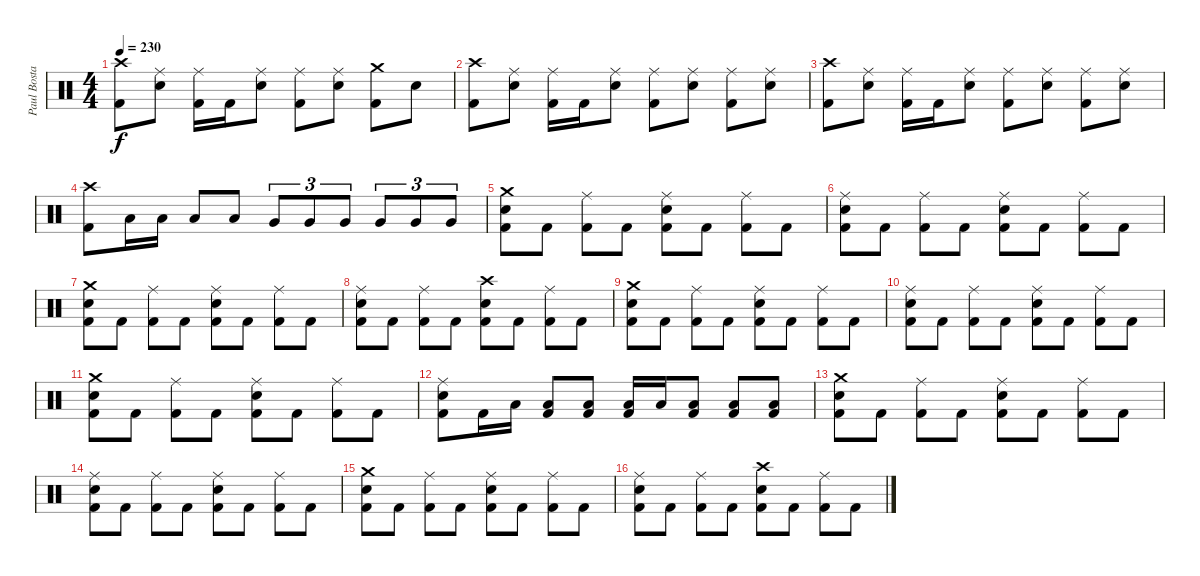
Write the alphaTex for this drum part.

\track ("Paul Bostaph" "Paul Bosta") {instrument percussion}
\staff {score}
\articulation defaults
\ts (4 4)
\tempo 230
\clef neutral
\ks c
("Crash high (hit)" "Kick (hit) 2").8{dy f} ("Electric Snare (hit)" "Ride (middle)").8 ("Kick (hit) 2" "Ride (middle)").16 "Kick (hit) 2".16 ("Electric Snare (hit)" "Ride (middle)").8 ("Kick (hit) 2" "Ride (middle)").8 ("Electric Snare (hit)" "Ride (middle)").8 ("Kick (hit) 2" "Crash medium (hit)").8 "Electric Snare (hit)".8 |
("Crash high (hit)" "Kick (hit) 2").8 ("Electric Snare (hit)" "Ride (middle)").8 ("Kick (hit) 2" "Ride (middle)").16 "Kick (hit) 2".16 ("Electric Snare (hit)" "Ride (middle)").8 ("Kick (hit) 2" "Ride (middle)").8 ("Electric Snare (hit)" "Ride (middle)").8 ("Kick (hit) 2" "Ride (middle)").8 ("Electric Snare (hit)" "Ride (middle)").8 |
("Crash high (hit)" "Kick (hit) 2").8 ("Electric Snare (hit)" "Ride (middle)").8 ("Kick (hit) 2" "Ride (middle)").16 "Kick (hit) 2".16 ("Electric Snare (hit)" "Ride (middle)").8 ("Kick (hit) 2" "Ride (middle)").8 ("Electric Snare (hit)" "Ride (middle)").8 ("Kick (hit) 2" "Ride (middle)").8 ("Electric Snare (hit)" "Ride (middle)").8 |
("Crash high (hit)" "Kick (hit) 2").8 "Low Tom (hit)".16 "Low Tom (hit)".16 "Low Tom (hit)".8 "Low Tom (hit)".8 "Very Low Tom (hit)".8{tu (3 2)} "Very Low Tom (hit)".8{tu (3 2)} "Very Low Tom (hit)".8{tu (3 2)} "Very Low Tom (hit)".8{tu (3 2)} "Very Low Tom (hit)".8{tu (3 2)} "Very Low Tom (hit)".8{tu (3 2)} |
("Electric Snare (hit)" "Crash medium (hit)" "Kick (hit) 2").8 "Kick (hit) 2".8 ("Ride (middle)" "Kick (hit) 2").8 "Kick (hit) 2".8 ("Ride (middle)" "Electric Snare (hit)" "Kick (hit) 2").8 "Kick (hit) 2".8 ("Ride (middle)" "Kick (hit) 2").8 "Kick (hit) 2".8 |
("Electric Snare (hit)" "Ride (middle)" "Kick (hit) 2").8 "Kick (hit) 2".8 ("Ride (middle)" "Kick (hit) 2").8 "Kick (hit) 2".8 ("Ride (middle)" "Electric Snare (hit)" "Kick (hit) 2").8 "Kick (hit) 2".8 ("Ride (middle)" "Kick (hit) 2").8 "Kick (hit) 2".8 |
("Electric Snare (hit)" "Crash medium (hit)" "Kick (hit) 2").8 "Kick (hit) 2".8 ("Ride (middle)" "Kick (hit) 2").8 "Kick (hit) 2".8 ("Ride (middle)" "Electric Snare (hit)" "Kick (hit) 2").8 "Kick (hit) 2".8 ("Ride (middle)" "Kick (hit) 2").8 "Kick (hit) 2".8 |
("Electric Snare (hit)" "Ride (middle)" "Kick (hit) 2").8 "Kick (hit) 2".8 ("Ride (middle)" "Kick (hit) 2").8 "Kick (hit) 2".8 ("Crash high (hit)" "Electric Snare (hit)" "Kick (hit) 2").8 "Kick (hit) 2".8 ("Ride (middle)" "Kick (hit) 2").8 "Kick (hit) 2".8 |
("Electric Snare (hit)" "Crash medium (hit)" "Kick (hit) 2").8 "Kick (hit) 2".8 ("Ride (middle)" "Kick (hit) 2").8 "Kick (hit) 2".8 ("Ride (middle)" "Electric Snare (hit)" "Kick (hit) 2").8 "Kick (hit) 2".8 ("Ride (middle)" "Kick (hit) 2").8 "Kick (hit) 2".8 |
("Electric Snare (hit)" "Ride (middle)" "Kick (hit) 2").8 "Kick (hit) 2".8 ("Ride (middle)" "Kick (hit) 2").8 "Kick (hit) 2".8 ("Ride (middle)" "Electric Snare (hit)" "Kick (hit) 2").8 "Kick (hit) 2".8 ("Ride (middle)" "Kick (hit) 2").8 "Kick (hit) 2".8 |
("Electric Snare (hit)" "Crash medium (hit)" "Kick (hit) 2").8 "Kick (hit) 2".8 ("Ride (middle)" "Kick (hit) 2").8 "Kick (hit) 2".8 ("Ride (middle)" "Electric Snare (hit)" "Kick (hit) 2").8 "Kick (hit) 2".8 ("Ride (middle)" "Kick (hit) 2").8 "Kick (hit) 2".8 |
("Electric Snare (hit)" "Ride (middle)" "Kick (hit) 2").8 "Kick (hit) 2".16 "Low Tom (hit)".16 ("Low Tom (hit)" "Kick (hit) 2").8 ("Low Tom (hit)" "Kick (hit) 2").8 ("Low Tom (hit)" "Kick (hit) 2").16 "Low Tom (hit)".16 ("Low Tom (hit)" "Kick (hit) 2").8 ("Low Tom (hit)" "Kick (hit) 2").8 ("Low Tom (hit)" "Kick (hit) 2").8 |
("Electric Snare (hit)" "Crash medium (hit)" "Kick (hit) 2").8 "Kick (hit) 2".8 ("Ride (middle)" "Kick (hit) 2").8 "Kick (hit) 2".8 ("Ride (middle)" "Electric Snare (hit)" "Kick (hit) 2").8 "Kick (hit) 2".8 ("Ride (middle)" "Kick (hit) 2").8 "Kick (hit) 2".8 |
("Electric Snare (hit)" "Ride (middle)" "Kick (hit) 2").8 "Kick (hit) 2".8 ("Ride (middle)" "Kick (hit) 2").8 "Kick (hit) 2".8 ("Ride (middle)" "Electric Snare (hit)" "Kick (hit) 2").8 "Kick (hit) 2".8 ("Ride (middle)" "Kick (hit) 2").8 "Kick (hit) 2".8 |
("Electric Snare (hit)" "Crash medium (hit)" "Kick (hit) 2").8 "Kick (hit) 2".8 ("Ride (middle)" "Kick (hit) 2").8 "Kick (hit) 2".8 ("Ride (middle)" "Electric Snare (hit)" "Kick (hit) 2").8 "Kick (hit) 2".8 ("Ride (middle)" "Kick (hit) 2").8 "Kick (hit) 2".8 |
("Electric Snare (hit)" "Ride (middle)" "Kick (hit) 2").8 "Kick (hit) 2".8 ("Ride (middle)" "Kick (hit) 2").8 "Kick (hit) 2".8 ("Crash high (hit)" "Electric Snare (hit)" "Kick (hit) 2").8 "Kick (hit) 2".8 ("Ride (middle)" "Kick (hit) 2").8 "Kick (hit) 2".8
